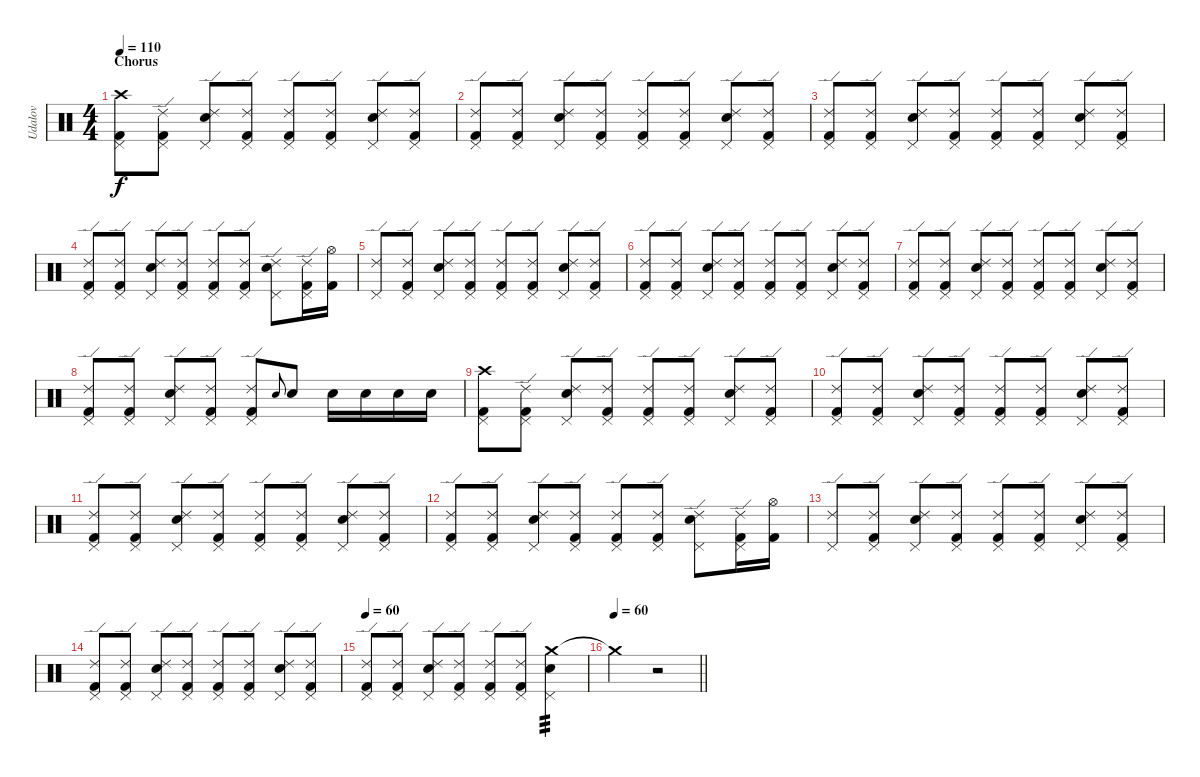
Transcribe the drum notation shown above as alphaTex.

\track ("Udalov" "Udalov") {instrument percussion}
\staff {score}
\articulation defaults
\ts (4 4)
\section ("" "Chorus")
\tempo 110
\clef neutral
\ks c
("Crash high (hit)" "Kick (hit) 2" "Pedal Hi-Hat (hit)").8{dy f} ("Ride (edge) 2" "Kick (hit) 2" "Pedal Hi-Hat (hit)").8 ("Ride (edge) 2" "Snare (hit) 2" "Pedal Hi-Hat (hit)").8 ("Ride (edge) 2" "Kick (hit) 2" "Pedal Hi-Hat (hit)").8 ("Ride (edge) 2" "Kick (hit) 2" "Pedal Hi-Hat (hit)").8 ("Ride (edge) 2" "Kick (hit) 2" "Pedal Hi-Hat (hit)").8 ("Ride (edge) 2" "Snare (hit) 2" "Pedal Hi-Hat (hit)").8 ("Ride (edge) 2" "Kick (hit) 2" "Pedal Hi-Hat (hit)").8 |
("Ride (edge) 2" "Kick (hit) 2" "Pedal Hi-Hat (hit)").8 ("Ride (edge) 2" "Kick (hit) 2" "Pedal Hi-Hat (hit)").8 ("Ride (edge) 2" "Snare (hit) 2" "Pedal Hi-Hat (hit)").8 ("Ride (edge) 2" "Kick (hit) 2" "Pedal Hi-Hat (hit)").8 ("Ride (edge) 2" "Kick (hit) 2" "Pedal Hi-Hat (hit)").8 ("Ride (edge) 2" "Kick (hit) 2" "Pedal Hi-Hat (hit)").8 ("Ride (edge) 2" "Snare (hit) 2" "Pedal Hi-Hat (hit)").8 ("Ride (edge) 2" "Kick (hit) 2" "Pedal Hi-Hat (hit)").8 |
("Ride (edge) 2" "Kick (hit) 2" "Pedal Hi-Hat (hit)").8 ("Ride (edge) 2" "Kick (hit) 2" "Pedal Hi-Hat (hit)").8 ("Ride (edge) 2" "Snare (hit) 2" "Pedal Hi-Hat (hit)").8 ("Ride (edge) 2" "Kick (hit) 2" "Pedal Hi-Hat (hit)").8 ("Ride (edge) 2" "Kick (hit) 2" "Pedal Hi-Hat (hit)").8 ("Ride (edge) 2" "Kick (hit) 2" "Pedal Hi-Hat (hit)").8 ("Ride (edge) 2" "Snare (hit) 2" "Pedal Hi-Hat (hit)").8 ("Ride (edge) 2" "Kick (hit) 2" "Pedal Hi-Hat (hit)").8 |
("Ride (edge) 2" "Kick (hit) 2" "Pedal Hi-Hat (hit)").8 ("Ride (edge) 2" "Kick (hit) 2" "Pedal Hi-Hat (hit)").8 ("Ride (edge) 2" "Snare (hit) 2" "Pedal Hi-Hat (hit)").8 ("Ride (edge) 2" "Kick (hit) 2" "Pedal Hi-Hat (hit)").8 ("Ride (edge) 2" "Kick (hit) 2" "Pedal Hi-Hat (hit)").8 ("Ride (edge) 2" "Kick (hit) 2" "Pedal Hi-Hat (hit)").8 ("Ride (edge) 2" "Snare (hit) 2" "Pedal Hi-Hat (hit)").8 ("Ride (edge) 2" "Kick (hit) 2" "Pedal Hi-Hat (hit)").16 ("Hi-Hat (open)" "Kick (hit) 2").16 |
("Ride (edge) 2" "Pedal Hi-Hat (hit)").8 ("Ride (edge) 2" "Kick (hit) 2" "Pedal Hi-Hat (hit)").8 ("Ride (edge) 2" "Snare (hit) 2" "Pedal Hi-Hat (hit)").8 ("Ride (edge) 2" "Kick (hit) 2" "Pedal Hi-Hat (hit)").8 ("Ride (edge) 2" "Kick (hit) 2" "Pedal Hi-Hat (hit)").8 ("Ride (edge) 2" "Kick (hit) 2" "Pedal Hi-Hat (hit)").8 ("Ride (edge) 2" "Snare (hit) 2" "Pedal Hi-Hat (hit)").8 ("Ride (edge) 2" "Kick (hit) 2" "Pedal Hi-Hat (hit)").8 |
("Ride (edge) 2" "Kick (hit) 2" "Pedal Hi-Hat (hit)").8 ("Ride (edge) 2" "Kick (hit) 2" "Pedal Hi-Hat (hit)").8 ("Ride (edge) 2" "Snare (hit) 2" "Pedal Hi-Hat (hit)").8 ("Ride (edge) 2" "Kick (hit) 2" "Pedal Hi-Hat (hit)").8 ("Ride (edge) 2" "Kick (hit) 2" "Pedal Hi-Hat (hit)").8 ("Ride (edge) 2" "Kick (hit) 2" "Pedal Hi-Hat (hit)").8 ("Ride (edge) 2" "Snare (hit) 2" "Pedal Hi-Hat (hit)").8 ("Ride (edge) 2" "Kick (hit) 2" "Pedal Hi-Hat (hit)").8 |
("Ride (edge) 2" "Kick (hit) 2" "Pedal Hi-Hat (hit)").8 ("Ride (edge) 2" "Kick (hit) 2" "Pedal Hi-Hat (hit)").8 ("Ride (edge) 2" "Snare (hit) 2" "Pedal Hi-Hat (hit)").8 ("Ride (edge) 2" "Kick (hit) 2" "Pedal Hi-Hat (hit)").8 ("Ride (edge) 2" "Kick (hit) 2" "Pedal Hi-Hat (hit)").8 ("Ride (edge) 2" "Kick (hit) 2" "Pedal Hi-Hat (hit)").8 ("Ride (edge) 2" "Snare (hit) 2" "Pedal Hi-Hat (hit)").8 ("Ride (edge) 2" "Kick (hit) 2" "Pedal Hi-Hat (hit)").8 |
("Ride (edge) 2" "Kick (hit) 2" "Pedal Hi-Hat (hit)").8 ("Ride (edge) 2" "Kick (hit) 2" "Pedal Hi-Hat (hit)").8 ("Ride (edge) 2" "Snare (hit) 2" "Pedal Hi-Hat (hit)").8 ("Ride (edge) 2" "Kick (hit) 2" "Pedal Hi-Hat (hit)").8 ("Ride (edge) 2" "Kick (hit) 2" "Pedal Hi-Hat (hit)").8 "Snare (hit) 2".8{gr onbeat} "Snare (hit) 2".8 "Snare (hit) 2".16 "Snare (hit) 2".16 "Snare (hit) 2".16 "Snare (hit) 2".16 |
("Crash high (hit)" "Kick (hit) 2" "Pedal Hi-Hat (hit)").8 ("Ride (edge) 2" "Kick (hit) 2" "Pedal Hi-Hat (hit)").8 ("Ride (edge) 2" "Snare (hit) 2" "Pedal Hi-Hat (hit)").8 ("Ride (edge) 2" "Kick (hit) 2" "Pedal Hi-Hat (hit)").8 ("Ride (edge) 2" "Kick (hit) 2" "Pedal Hi-Hat (hit)").8 ("Ride (edge) 2" "Kick (hit) 2" "Pedal Hi-Hat (hit)").8 ("Ride (edge) 2" "Snare (hit) 2" "Pedal Hi-Hat (hit)").8 ("Ride (edge) 2" "Kick (hit) 2" "Pedal Hi-Hat (hit)").8 |
("Ride (edge) 2" "Kick (hit) 2" "Pedal Hi-Hat (hit)").8 ("Ride (edge) 2" "Kick (hit) 2" "Pedal Hi-Hat (hit)").8 ("Ride (edge) 2" "Snare (hit) 2" "Pedal Hi-Hat (hit)").8 ("Ride (edge) 2" "Kick (hit) 2" "Pedal Hi-Hat (hit)").8 ("Ride (edge) 2" "Kick (hit) 2" "Pedal Hi-Hat (hit)").8 ("Ride (edge) 2" "Kick (hit) 2" "Pedal Hi-Hat (hit)").8 ("Ride (edge) 2" "Snare (hit) 2" "Pedal Hi-Hat (hit)").8 ("Ride (edge) 2" "Kick (hit) 2" "Pedal Hi-Hat (hit)").8 |
("Ride (edge) 2" "Kick (hit) 2" "Pedal Hi-Hat (hit)").8 ("Ride (edge) 2" "Kick (hit) 2" "Pedal Hi-Hat (hit)").8 ("Ride (edge) 2" "Snare (hit) 2" "Pedal Hi-Hat (hit)").8 ("Ride (edge) 2" "Kick (hit) 2" "Pedal Hi-Hat (hit)").8 ("Ride (edge) 2" "Kick (hit) 2" "Pedal Hi-Hat (hit)").8 ("Ride (edge) 2" "Kick (hit) 2" "Pedal Hi-Hat (hit)").8 ("Ride (edge) 2" "Snare (hit) 2" "Pedal Hi-Hat (hit)").8 ("Ride (edge) 2" "Kick (hit) 2" "Pedal Hi-Hat (hit)").8 |
("Ride (edge) 2" "Kick (hit) 2" "Pedal Hi-Hat (hit)").8 ("Ride (edge) 2" "Kick (hit) 2" "Pedal Hi-Hat (hit)").8 ("Ride (edge) 2" "Snare (hit) 2" "Pedal Hi-Hat (hit)").8 ("Ride (edge) 2" "Kick (hit) 2" "Pedal Hi-Hat (hit)").8 ("Ride (edge) 2" "Kick (hit) 2" "Pedal Hi-Hat (hit)").8 ("Ride (edge) 2" "Kick (hit) 2" "Pedal Hi-Hat (hit)").8 ("Ride (edge) 2" "Snare (hit) 2" "Pedal Hi-Hat (hit)").8 ("Ride (edge) 2" "Kick (hit) 2" "Pedal Hi-Hat (hit)").16 ("Hi-Hat (open)" "Kick (hit) 2").16 |
("Ride (edge) 2" "Pedal Hi-Hat (hit)").8 ("Ride (edge) 2" "Kick (hit) 2" "Pedal Hi-Hat (hit)").8 ("Ride (edge) 2" "Snare (hit) 2" "Pedal Hi-Hat (hit)").8 ("Ride (edge) 2" "Kick (hit) 2" "Pedal Hi-Hat (hit)").8 ("Ride (edge) 2" "Kick (hit) 2" "Pedal Hi-Hat (hit)").8 ("Ride (edge) 2" "Kick (hit) 2" "Pedal Hi-Hat (hit)").8 ("Ride (edge) 2" "Snare (hit) 2" "Pedal Hi-Hat (hit)").8 ("Ride (edge) 2" "Kick (hit) 2" "Pedal Hi-Hat (hit)").8 |
("Ride (edge) 2" "Kick (hit) 2" "Pedal Hi-Hat (hit)").8 ("Ride (edge) 2" "Kick (hit) 2" "Pedal Hi-Hat (hit)").8 ("Ride (edge) 2" "Snare (hit) 2" "Pedal Hi-Hat (hit)").8 ("Ride (edge) 2" "Kick (hit) 2" "Pedal Hi-Hat (hit)").8 ("Ride (edge) 2" "Kick (hit) 2" "Pedal Hi-Hat (hit)").8 ("Ride (edge) 2" "Kick (hit) 2" "Pedal Hi-Hat (hit)").8 ("Ride (edge) 2" "Snare (hit) 2" "Pedal Hi-Hat (hit)").8 ("Ride (edge) 2" "Kick (hit) 2" "Pedal Hi-Hat (hit)").8 |
\tempo 60
("Ride (edge) 2" "Kick (hit) 2" "Pedal Hi-Hat (hit)").8 ("Ride (edge) 2" "Kick (hit) 2" "Pedal Hi-Hat (hit)").8 ("Ride (edge) 2" "Snare (hit) 2" "Pedal Hi-Hat (hit)").8 ("Ride (edge) 2" "Kick (hit) 2" "Pedal Hi-Hat (hit)").8 ("Ride (edge) 2" "Kick (hit) 2" "Pedal Hi-Hat (hit)").8 ("Ride (edge) 2" "Kick (hit) 2" "Pedal Hi-Hat (hit)").8 ("Crash medium (hit)" "Snare (hit) 2" "Pedal Hi-Hat (hit)").4{tp 3} |
\tempo 60
\barLineRight lightlight "Crash medium (hit)"{t}.2
r.2
